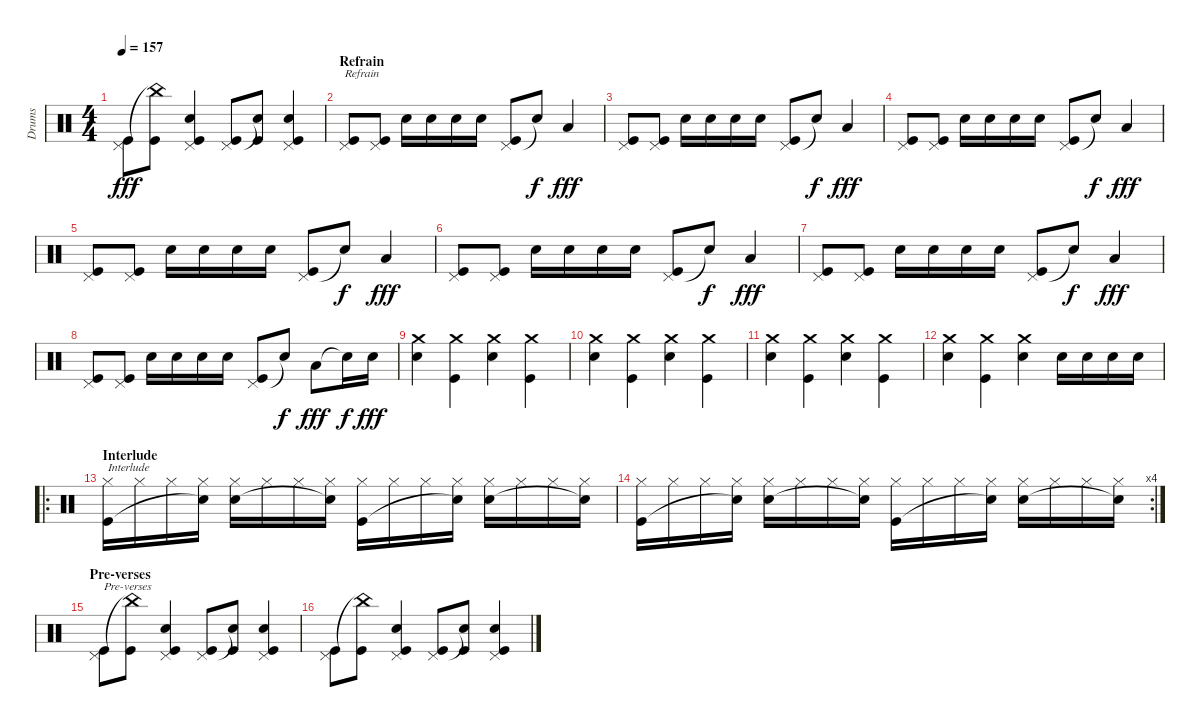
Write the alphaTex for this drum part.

\track ("Drums" "Drums") {instrument percussion}
\staff {score}
\articulation defaults
\ts (4 4)
\tempo 157
\clef neutral
\ks c
("Pedal Hi-Hat (hit)" "Kick (hit)").8{dy fff} ("China (hit)"{t} "Kick (hit)").8 ("Pedal Hi-Hat (hit)" "Electric Snare (hit)" "Kick (hit)").4 ("Pedal Hi-Hat (hit)" "Kick (hit)").8 ("Snare (hit)"{t} "Kick (hit)").8 ("Pedal Hi-Hat (hit)" "Electric Snare (hit)" "Kick (hit)").4 |
\section ("" "Refrain")
("Pedal Hi-Hat (hit)" "Kick (hit)").8{txt "Refrain"} ("Pedal Hi-Hat (hit)" "Kick (hit)").8 "Electric Snare (hit)".16 "Electric Snare (hit)".16 "Electric Snare (hit)".16 "Electric Snare (hit)".16 ("Pedal Hi-Hat (hit)" "Kick (hit)").8 "Snare (hit)"{t}.8{dy f} "Low Tom (hit)".4{dy fff} |
("Pedal Hi-Hat (hit)" "Kick (hit)").8 ("Pedal Hi-Hat (hit)" "Kick (hit)").8 "Electric Snare (hit)".16 "Electric Snare (hit)".16 "Electric Snare (hit)".16 "Electric Snare (hit)".16 ("Pedal Hi-Hat (hit)" "Kick (hit)").8 "Snare (hit)"{t}.8{dy f} "Low Tom (hit)".4{dy fff} |
("Pedal Hi-Hat (hit)" "Kick (hit)").8 ("Pedal Hi-Hat (hit)" "Kick (hit)").8 "Electric Snare (hit)".16 "Electric Snare (hit)".16 "Electric Snare (hit)".16 "Electric Snare (hit)".16 ("Pedal Hi-Hat (hit)" "Kick (hit)").8 "Snare (hit)"{t}.8{dy f} "Low Tom (hit)".4{dy fff} |
("Pedal Hi-Hat (hit)" "Kick (hit)").8 ("Pedal Hi-Hat (hit)" "Kick (hit)").8 "Electric Snare (hit)".16 "Electric Snare (hit)".16 "Electric Snare (hit)".16 "Electric Snare (hit)".16 ("Pedal Hi-Hat (hit)" "Kick (hit)").8 "Snare (hit)"{t}.8{dy f} "Low Tom (hit)".4{dy fff} |
("Pedal Hi-Hat (hit)" "Kick (hit)").8 ("Pedal Hi-Hat (hit)" "Kick (hit)").8 "Electric Snare (hit)".16 "Electric Snare (hit)".16 "Electric Snare (hit)".16 "Electric Snare (hit)".16 ("Pedal Hi-Hat (hit)" "Kick (hit)").8 "Snare (hit)"{t}.8{dy f} "Low Tom (hit)".4{dy fff} |
("Pedal Hi-Hat (hit)" "Kick (hit)").8 ("Pedal Hi-Hat (hit)" "Kick (hit)").8 "Electric Snare (hit)".16 "Electric Snare (hit)".16 "Electric Snare (hit)".16 "Electric Snare (hit)".16 ("Pedal Hi-Hat (hit)" "Kick (hit)").8 "Snare (hit)"{t}.8{dy f} "Low Tom (hit)".4{dy fff} |
("Pedal Hi-Hat (hit)" "Kick (hit)").8 ("Pedal Hi-Hat (hit)" "Kick (hit)").8 "Electric Snare (hit)".16 "Electric Snare (hit)".16 "Electric Snare (hit)".16 "Electric Snare (hit)".16 ("Pedal Hi-Hat (hit)" "Kick (hit)").8 "Snare (hit)"{t}.8{dy f} "Low Tom (hit)".8{dy fff} "Snare (hit)"{t}.16{dy f} "Electric Snare (hit)".16{dy fff} |
("Crash medium (hit)" "Electric Snare (hit)").4 ("Crash medium (hit)" "Kick (hit)").4 ("Crash medium (hit)" "Electric Snare (hit)").4 ("Crash medium (hit)" "Kick (hit)").4 |
("Crash medium (hit)" "Electric Snare (hit)").4 ("Crash medium (hit)" "Kick (hit)").4 ("Crash medium (hit)" "Electric Snare (hit)").4 ("Crash medium (hit)" "Kick (hit)").4 |
("Crash medium (hit)" "Electric Snare (hit)").4 ("Crash medium (hit)" "Kick (hit)").4 ("Crash medium (hit)" "Electric Snare (hit)").4 ("Crash medium (hit)" "Kick (hit)").4 |
("Crash medium (hit)" "Electric Snare (hit)").4 ("Crash medium (hit)" "Kick (hit)").4 ("Crash medium (hit)" "Electric Snare (hit)").4 "Electric Snare (hit)".16 "Electric Snare (hit)".16 "Electric Snare (hit)".16 "Electric Snare (hit)".16 |
\ro
\section ("" "Interlude")
("Hi-Hat (closed)" "Kick (hit)").16{txt "Interlude"} "Hi-Hat (closed)".16 "Hi-Hat (closed)".16 ("Hi-Hat (closed)" "Snare (hit)"{t}).16 ("Hi-Hat (closed)" "Snare (hit) 2").16 "Hi-Hat (closed)".16 "Hi-Hat (closed)".16 ("Hi-Hat (closed)" "Snare (hit)"{t}).16 ("Hi-Hat (closed)" "Kick (hit)").16 "Hi-Hat (closed)".16 "Hi-Hat (closed)".16 ("Hi-Hat (closed)" "Snare (hit)"{t}).16 ("Hi-Hat (closed)" "Snare (hit) 2").16 "Hi-Hat (closed)".16 "Hi-Hat (closed)".16 ("Hi-Hat (closed)" "Snare (hit)"{t}).16 |
\rc 4
("Hi-Hat (closed)" "Kick (hit)").16 "Hi-Hat (closed)".16 "Hi-Hat (closed)".16 ("Hi-Hat (closed)" "Snare (hit)"{t}).16 ("Hi-Hat (closed)" "Snare (hit) 2").16 "Hi-Hat (closed)".16 "Hi-Hat (closed)".16 ("Hi-Hat (closed)" "Snare (hit)"{t}).16 ("Hi-Hat (closed)" "Kick (hit)").16 "Hi-Hat (closed)".16 "Hi-Hat (closed)".16 ("Hi-Hat (closed)" "Snare (hit)"{t}).16 ("Hi-Hat (closed)" "Snare (hit) 2").16 "Hi-Hat (closed)".16 "Hi-Hat (closed)".16 ("Hi-Hat (closed)" "Snare (hit)"{t}).16 |
\section ("" "Pre-verses")
("Pedal Hi-Hat (hit)" "Kick (hit)").8{txt "Pre-verses"} ("China (hit)"{t} "Kick (hit)").8 ("Pedal Hi-Hat (hit)" "Electric Snare (hit)" "Kick (hit)").4 ("Pedal Hi-Hat (hit)" "Kick (hit)").8 ("Snare (hit)"{t} "Kick (hit)").8 ("Pedal Hi-Hat (hit)" "Electric Snare (hit)" "Kick (hit)").4 |
("Pedal Hi-Hat (hit)" "Kick (hit)").8 ("China (hit)"{t} "Kick (hit)").8 ("Pedal Hi-Hat (hit)" "Electric Snare (hit)" "Kick (hit)").4 ("Pedal Hi-Hat (hit)" "Kick (hit)").8 ("Snare (hit)"{t} "Kick (hit)").8 ("Pedal Hi-Hat (hit)" "Electric Snare (hit)" "Kick (hit)").4
